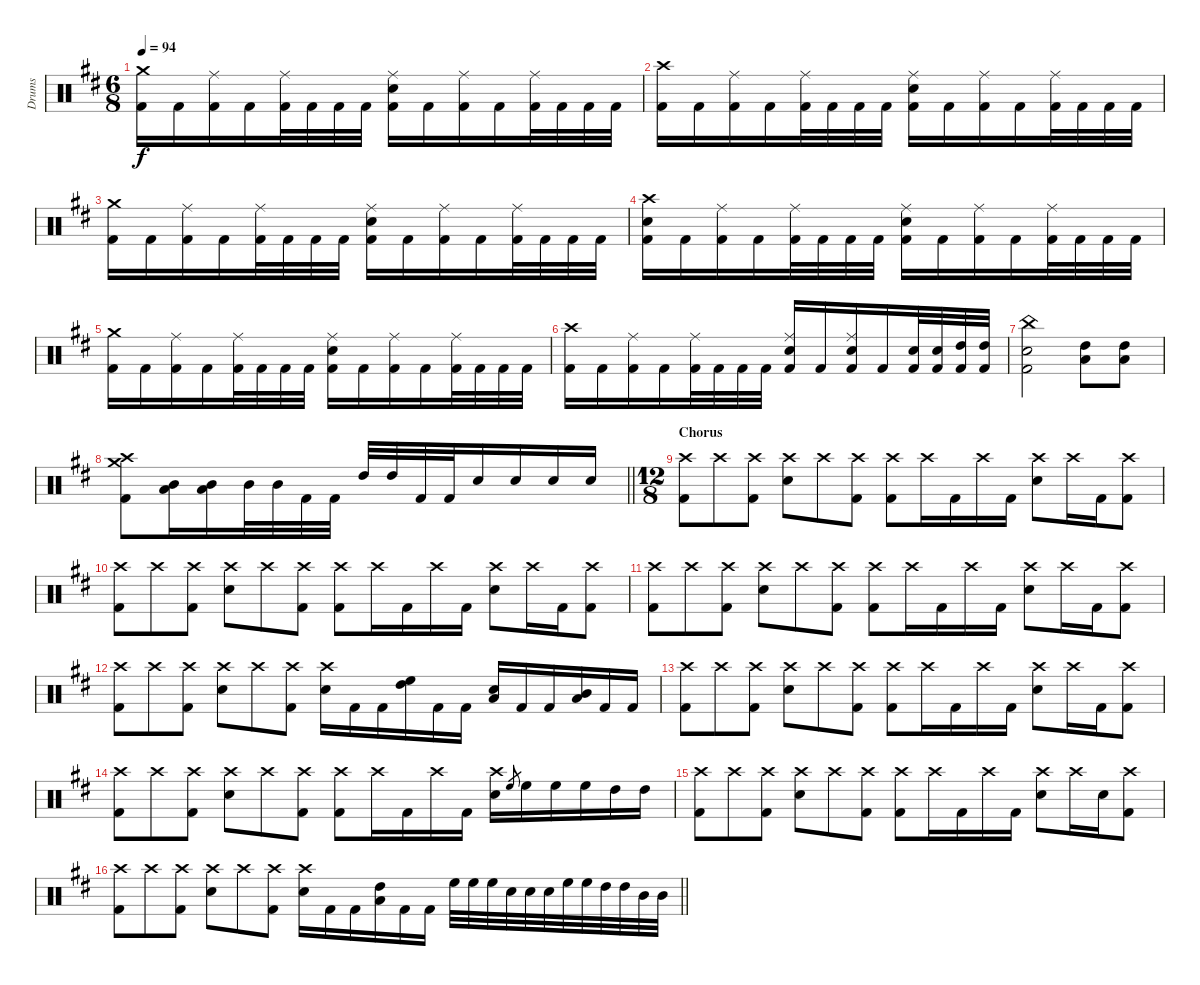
\track ("Drums" "Drums") {instrument percussion}
\staff {score}
\articulation defaults
\ts (6 8)
\tempo 94
\clef neutral
\ks bminor
("Crash medium (hit)" "Kick (hit) 2").16{dy f} "Kick (hit) 2".16 ("Ride (middle)" "Kick (hit) 2").16 "Kick (hit) 2".16 ("Ride (middle)" "Kick (hit) 2").32 "Kick (hit) 2".32 "Kick (hit) 2".32 "Kick (hit) 2".32 ("Ride (middle)" "Snare (hit) 2" "Kick (hit) 2").16 "Kick (hit) 2".16 ("Ride (middle)" "Kick (hit) 2").16 "Kick (hit) 2".16 ("Ride (middle)" "Kick (hit) 2").32 "Kick (hit) 2".32 "Kick (hit) 2".32 "Kick (hit) 2".32 |
("Crash high (hit)" "Kick (hit) 2").16 "Kick (hit) 2".16 ("Ride (middle)" "Kick (hit) 2").16 "Kick (hit) 2".16 ("Ride (middle)" "Kick (hit) 2").32 "Kick (hit) 2".32 "Kick (hit) 2".32 "Kick (hit) 2".32 ("Ride (middle)" "Snare (hit) 2" "Kick (hit) 2").16 "Kick (hit) 2".16 ("Ride (middle)" "Kick (hit) 2").16 "Kick (hit) 2".16 ("Ride (middle)" "Kick (hit) 2").32 "Kick (hit) 2".32 "Kick (hit) 2".32 "Kick (hit) 2".32 |
("Crash medium (hit)" "Kick (hit) 2").16 "Kick (hit) 2".16 ("Ride (middle)" "Kick (hit) 2").16 "Kick (hit) 2".16 ("Ride (middle)" "Kick (hit) 2").32 "Kick (hit) 2".32 "Kick (hit) 2".32 "Kick (hit) 2".32 ("Ride (middle)" "Snare (hit) 2" "Kick (hit) 2").16 "Kick (hit) 2".16 ("Ride (middle)" "Kick (hit) 2").16 "Kick (hit) 2".16 ("Ride (middle)" "Kick (hit) 2").32 "Kick (hit) 2".32 "Kick (hit) 2".32 "Kick (hit) 2".32 |
("Crash high (hit)" "Snare (hit) 2" "Kick (hit) 2").16 "Kick (hit) 2".16 ("Ride (middle)" "Kick (hit) 2").16 "Kick (hit) 2".16 ("Ride (middle)" "Kick (hit) 2").32 "Kick (hit) 2".32 "Kick (hit) 2".32 "Kick (hit) 2".32 ("Ride (middle)" "Snare (hit) 2" "Kick (hit) 2").16 "Kick (hit) 2".16 ("Ride (middle)" "Kick (hit) 2").16 "Kick (hit) 2".16 ("Ride (middle)" "Kick (hit) 2").32 "Kick (hit) 2".32 "Kick (hit) 2".32 "Kick (hit) 2".32 |
("Crash medium (hit)" "Kick (hit) 2").16 "Kick (hit) 2".16 ("Ride (middle)" "Kick (hit) 2").16 "Kick (hit) 2".16 ("Ride (middle)" "Kick (hit) 2").32 "Kick (hit) 2".32 "Kick (hit) 2".32 "Kick (hit) 2".32 ("Ride (middle)" "Snare (hit) 2" "Kick (hit) 2").16 "Kick (hit) 2".16 ("Ride (middle)" "Kick (hit) 2").16 "Kick (hit) 2".16 ("Ride (middle)" "Kick (hit) 2").32 "Kick (hit) 2".32 "Kick (hit) 2".32 "Kick (hit) 2".32 |
("Crash high (hit)" "Kick (hit) 2").16 "Kick (hit) 2".16 ("Ride (middle)" "Kick (hit) 2").16 "Kick (hit) 2".16 ("Ride (middle)" "Kick (hit) 2").32 "Kick (hit) 2".32 "Kick (hit) 2".32 "Kick (hit) 2".32 ("Ride (middle)" "Snare (hit) 2" "Kick (hit) 2").16 "Kick (hit) 2".16 ("Ride (middle)" "Snare (hit) 2" "Kick (hit) 2").16 "Kick (hit) 2".16 ("Snare (hit) 2" "Kick (hit) 2").32 ("Snare (hit) 2" "Kick (hit) 2").32 ("High Tom (hit)" "Kick (hit) 2").32 ("High Tom (hit)" "Kick (hit) 2").32 |
("China (hit)" "Snare (hit) 2" "Kick (hit) 2").2 ("Low Tom (hit)" "High Tom (hit)").8 ("Low Tom (hit)" "High Tom (hit)").8 |
\barLineRight lightlight
("Crash high (hit)" "Crash medium (hit)" "Kick (hit) 2").8 ("Low Tom (hit)" "Mid Tom (hit)").16 ("Low Tom (hit)" "Mid Tom (hit)").16 "Mid Tom (hit)".32 "Mid Tom (hit)".32 "Kick (hit) 2".32 "Kick (hit) 2".32 "High Tom (hit)".32 "High Tom (hit)".32 "Kick (hit) 2".32 "Kick (hit) 2".32 "Snare (hit) 2".16 "Snare (hit) 2".16 "Snare (hit) 2".16 "Snare (hit) 2".16 |
\ts (12 8)
\section ("" "Chorus")
("Crash high (hit)" "Kick (hit) 2").8 "Crash high (hit)".8 ("Crash high (hit)" "Kick (hit) 2").8 ("Crash high (hit)" "Snare (hit) 2").8 "Crash high (hit)".8 ("Crash high (hit)" "Kick (hit) 2").8 ("Crash high (hit)" "Kick (hit) 2").8 "Crash high (hit)".16 "Kick (hit) 2".16 "Crash high (hit)".16 "Kick (hit) 2".16 ("Crash high (hit)" "Snare (hit) 2").8 "Crash high (hit)".16 "Kick (hit) 2".16 ("Crash high (hit)" "Kick (hit) 2").8 |
("Crash high (hit)" "Kick (hit) 2").8 "Crash high (hit)".8 ("Crash high (hit)" "Kick (hit) 2").8 ("Crash high (hit)" "Snare (hit) 2").8 "Crash high (hit)".8 ("Crash high (hit)" "Kick (hit) 2").8 ("Crash high (hit)" "Kick (hit) 2").8 "Crash high (hit)".16 "Kick (hit) 2".16 "Crash high (hit)".16 "Kick (hit) 2".16 ("Crash high (hit)" "Snare (hit) 2").8 "Crash high (hit)".16 "Kick (hit) 2".16 ("Crash high (hit)" "Kick (hit) 2").8 |
("Crash high (hit)" "Kick (hit) 2").8 "Crash high (hit)".8 ("Crash high (hit)" "Kick (hit) 2").8 ("Crash high (hit)" "Snare (hit) 2").8 "Crash high (hit)".8 ("Crash high (hit)" "Kick (hit) 2").8 ("Crash high (hit)" "Kick (hit) 2").8 "Crash high (hit)".16 "Kick (hit) 2".16 "Crash high (hit)".16 "Kick (hit) 2".16 ("Crash high (hit)" "Snare (hit) 2").8 "Crash high (hit)".16 "Kick (hit) 2".16 ("Crash high (hit)" "Kick (hit) 2").8 |
("Crash high (hit)" "Kick (hit) 2").8 "Crash high (hit)".8 ("Crash high (hit)" "Kick (hit) 2").8 ("Crash high (hit)" "Snare (hit) 2").8 "Crash high (hit)".8 ("Crash high (hit)" "Kick (hit) 2").8 ("Crash high (hit)" "Snare (hit) 2").16 "Kick (hit) 2".16 "Kick (hit) 2".16 ("High Floor Tom (hit)" "High Tom (hit)").16 "Kick (hit) 2".16 "Kick (hit) 2".16 ("Low Tom (hit)" "Snare (hit) 2").16 "Kick (hit) 2".16 "Kick (hit) 2".16 ("Mid Tom (hit)" "Low Tom (hit)").16 "Kick (hit) 2".16 "Kick (hit) 2".16 |
("Crash high (hit)" "Kick (hit) 2").8 "Crash high (hit)".8 ("Crash high (hit)" "Kick (hit) 2").8 ("Crash high (hit)" "Snare (hit) 2").8 "Crash high (hit)".8 ("Crash high (hit)" "Kick (hit) 2").8 ("Crash high (hit)" "Kick (hit) 2").8 "Crash high (hit)".16 "Kick (hit) 2".16 "Crash high (hit)".16 "Kick (hit) 2".16 ("Crash high (hit)" "Snare (hit) 2").8 "Crash high (hit)".16 "Kick (hit) 2".16 ("Crash high (hit)" "Kick (hit) 2").8 |
("Crash high (hit)" "Kick (hit) 2").8 "Crash high (hit)".8 ("Crash high (hit)" "Kick (hit) 2").8 ("Crash high (hit)" "Snare (hit) 2").8 "Crash high (hit)".8 ("Crash high (hit)" "Kick (hit) 2").8 ("Crash high (hit)" "Kick (hit) 2").8 "Crash high (hit)".16 "Kick (hit) 2".16 "Crash high (hit)".16 "Kick (hit) 2".16 ("Crash high (hit)" "Snare (hit) 2").16 "High Floor Tom (hit)".8{gr} "High Floor Tom (hit)".16 "High Floor Tom (hit)".16 "High Floor Tom (hit)".16 "High Tom (hit)".16 "High Tom (hit)".16 |
("Crash high (hit)" "Kick (hit) 2").8 "Crash high (hit)".8 ("Crash high (hit)" "Kick (hit) 2").8 ("Crash high (hit)" "Snare (hit) 2").8 "Crash high (hit)".8 ("Crash high (hit)" "Kick (hit) 2").8 ("Crash high (hit)" "Kick (hit) 2").8 "Crash high (hit)".16 "Kick (hit) 2".16 "Crash high (hit)".16 "Kick (hit) 2".16 ("Crash high (hit)" "Snare (hit) 2").8 "Crash high (hit)".16 "Snare (hit) 2".16 ("Crash high (hit)" "Kick (hit) 2").8 |
\barLineRight lightlight
("Crash high (hit)" "Kick (hit) 2").8 "Crash high (hit)".8 ("Crash high (hit)" "Kick (hit) 2").8 ("Crash high (hit)" "Snare (hit) 2").8 "Crash high (hit)".8 ("Crash high (hit)" "Kick (hit) 2").8 ("Crash high (hit)" "Snare (hit) 2").16 "Kick (hit) 2".16 "Kick (hit) 2".16 ("Low Tom (hit)" "High Tom (hit)").16 "Kick (hit) 2".16 "Kick (hit) 2".16 "High Floor Tom (hit)".32 "High Floor Tom (hit)".32 "High Floor Tom (hit)".32 "Snare (hit) 2".32 "Snare (hit) 2".32 "Snare (hit) 2".32 "High Floor Tom (hit)".32 "High Floor Tom (hit)".32 "High Tom (hit)".32 "High Tom (hit)".32 "Mid Tom (hit)".32 "Mid Tom (hit)".32
